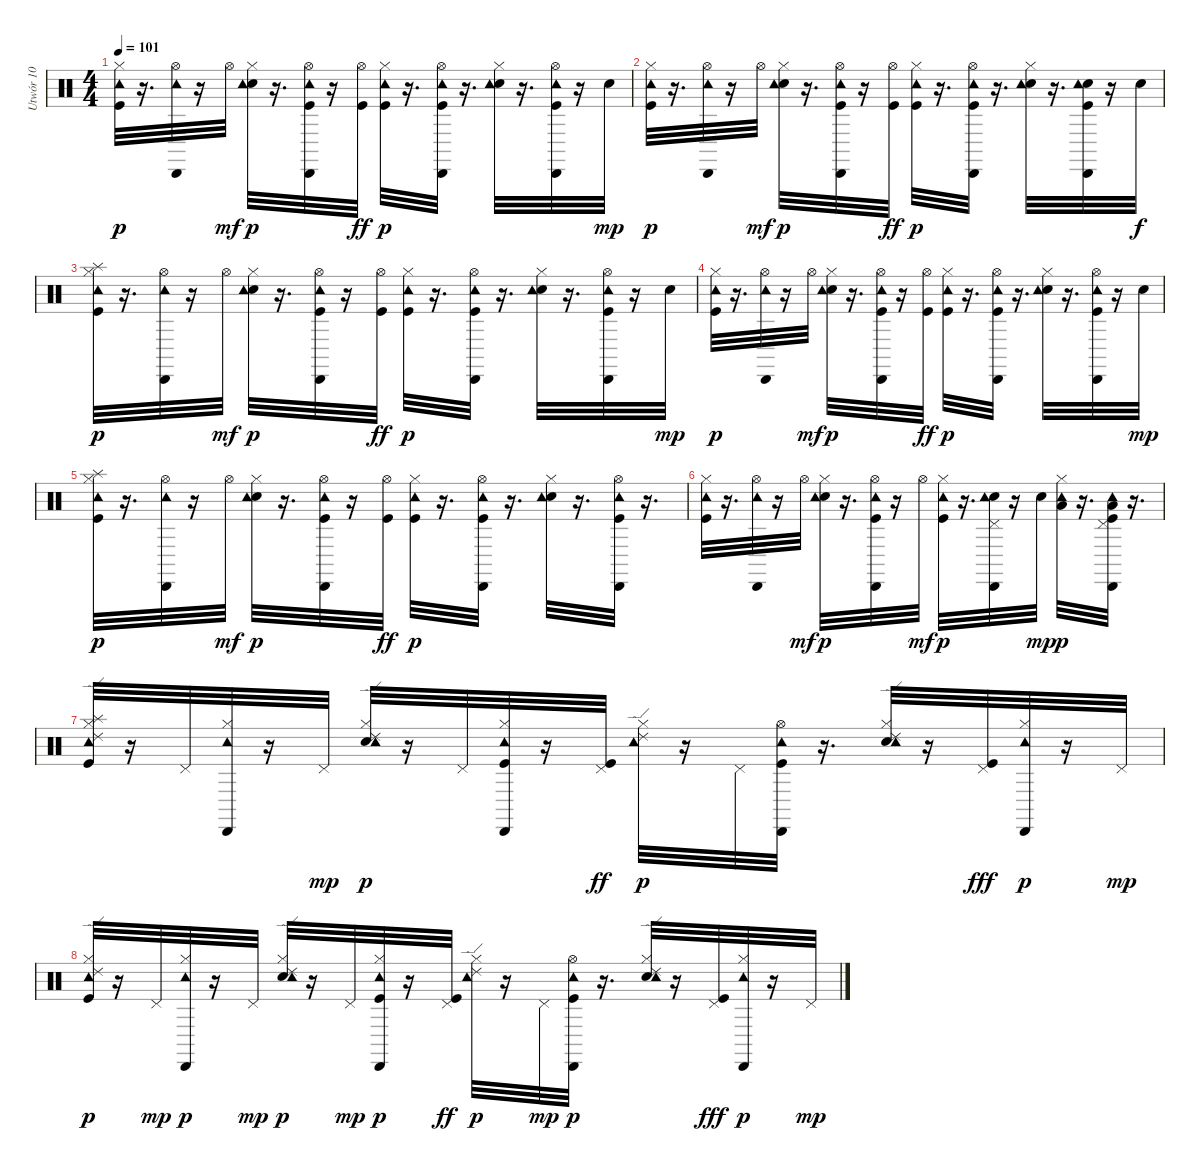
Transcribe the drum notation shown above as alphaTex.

\track ("Utwór 10" "Utwór 10") {instrument percussion}
\staff {score}
\articulation defaults
\ts (4 4)
\tempo 101
\clef neutral
\ks c
("Hi-Hat (closed)" "Kick (hit)" "Tambourine (hit)").32{dy p} r.16{d} ("Cabasa (hit)" "Hi-Hat (open)" "Tambourine (hit)").32 r.16 "Hi-Hat (open)".32{dy mf} ("Electric Snare (hit)" "Hi-Hat (closed)" "Tambourine (hit)").32{dy p} r.16{d} ("Cabasa (hit)" "Hi-Hat (open)" "Kick (hit)" "Tambourine (hit)").32 r.16 ("Hi-Hat (open)" "Kick (hit)").32{dy ff} ("Hi-Hat (closed)" "Kick (hit)" "Tambourine (hit)").32{dy p} r.16{d} ("Cabasa (hit)" "Hi-Hat (open)" "Kick (hit)" "Tambourine (hit)").32 r.16{d} ("Electric Snare (hit)" "Hi-Hat (closed)" "Tambourine (hit)").32 r.16{d} ("Cabasa (hit)" "Hi-Hat (open)" "Kick (hit)" "Tambourine (hit)").32 r.16 "Electric Snare (hit)".32{dy mp} |
("Hi-Hat (closed)" "Kick (hit)" "Tambourine (hit)").32{dy p} r.16{d} ("Cabasa (hit)" "Hi-Hat (open)" "Tambourine (hit)").32 r.16 "Hi-Hat (open)".32{dy mf} ("Electric Snare (hit)" "Hi-Hat (closed)" "Tambourine (hit)").32{dy p} r.16{d} ("Cabasa (hit)" "Hi-Hat (open)" "Kick (hit)" "Tambourine (hit)").32 r.16 ("Hi-Hat (open)" "Kick (hit)").32{dy ff} ("Hi-Hat (closed)" "Kick (hit)" "Tambourine (hit)").32{dy p} r.16{d} ("Cabasa (hit)" "Hi-Hat (open)" "Kick (hit)" "Tambourine (hit)").32 r.16{d} ("Electric Snare (hit)" "Hi-Hat (closed)" "Tambourine (hit)").32 r.16{d} ("Cabasa (hit)" "Electric Snare (hit)" "Kick (hit)" "Tambourine (hit)").32 r.16 "Electric Snare (hit)".32{dy f} |
("Splash (hit)" "Hi-Hat (closed)" "Kick (hit)" "Tambourine (hit)").32{dy p} r.16{d} ("Cabasa (hit)" "Hi-Hat (open)" "Tambourine (hit)").32 r.16 "Hi-Hat (open)".32{dy mf} ("Electric Snare (hit)" "Hi-Hat (closed)" "Tambourine (hit)").32{dy p} r.16{d} ("Cabasa (hit)" "Hi-Hat (open)" "Kick (hit)" "Tambourine (hit)").32 r.16 ("Hi-Hat (open)" "Kick (hit)").32{dy ff} ("Hi-Hat (closed)" "Kick (hit)" "Tambourine (hit)").32{dy p} r.16{d} ("Cabasa (hit)" "Hi-Hat (open)" "Kick (hit)" "Tambourine (hit)").32 r.16{d} ("Electric Snare (hit)" "Hi-Hat (closed)" "Tambourine (hit)").32 r.16{d} ("Cabasa (hit)" "Hi-Hat (open)" "Kick (hit)" "Tambourine (hit)").32 r.16 "Electric Snare (hit)".32{dy mp} |
("Hi-Hat (closed)" "Kick (hit)" "Tambourine (hit)").32{dy p} r.16{d} ("Cabasa (hit)" "Hi-Hat (open)" "Tambourine (hit)").32 r.16 "Hi-Hat (open)".32{dy mf} ("Electric Snare (hit)" "Hi-Hat (closed)" "Tambourine (hit)").32{dy p} r.16{d} ("Cabasa (hit)" "Hi-Hat (open)" "Kick (hit)" "Tambourine (hit)").32 r.16 ("Hi-Hat (open)" "Kick (hit)").32{dy ff} ("Hi-Hat (closed)" "Kick (hit)" "Tambourine (hit)").32{dy p} r.16{d} ("Cabasa (hit)" "Hi-Hat (open)" "Kick (hit)" "Tambourine (hit)").32 r.16{d} ("Electric Snare (hit)" "Hi-Hat (closed)" "Tambourine (hit)").32 r.16{d} ("Cabasa (hit)" "Hi-Hat (open)" "Kick (hit)" "Tambourine (hit)").32 r.16 "Electric Snare (hit)".32{dy mp} |
("Splash (hit)" "Hi-Hat (closed)" "Kick (hit)" "Tambourine (hit)").32{dy p} r.16{d} ("Cabasa (hit)" "Hi-Hat (open)" "Tambourine (hit)").32 r.16 "Hi-Hat (open)".32{dy mf} ("Electric Snare (hit)" "Hi-Hat (closed)" "Tambourine (hit)").32{dy p} r.16{d} ("Cabasa (hit)" "Hi-Hat (open)" "Kick (hit)" "Tambourine (hit)").32 r.16 ("Hi-Hat (open)" "Kick (hit)").32{dy ff} ("Hi-Hat (closed)" "Kick (hit)" "Tambourine (hit)").32{dy p} r.16{d} ("Cabasa (hit)" "Hi-Hat (open)" "Kick (hit)" "Tambourine (hit)").32 r.16{d} ("Electric Snare (hit)" "Hi-Hat (closed)" "Tambourine (hit)").32 r.16{d} ("Cabasa (hit)" "Hi-Hat (open)" "Kick (hit)" "Tambourine (hit)").32 r.16{d} |
("Hi-Hat (closed)" "Kick (hit)" "Tambourine (hit)").32 r.16{d} ("Cabasa (hit)" "Hi-Hat (open)" "Tambourine (hit)").32 r.16 "Hi-Hat (open)".32{dy mf} ("Electric Snare (hit)" "Hi-Hat (closed)" "Tambourine (hit)").32{dy p} r.16{d} ("Cabasa (hit)" "Hi-Hat (open)" "Kick (hit)" "Tambourine (hit)").32 r.16 "Hi-Hat (open)".32{dy mf} ("Hi-Hat (closed)" "Kick (hit)" "Tambourine (hit)").32{dy p} r.16{d} ("Cabasa (hit)" "Electric Snare (hit)" "Pedal Hi-Hat (hit)" "Tambourine (hit)").32 r.16 "Electric Snare (hit)".32{dy mp} ("Low Tom (hit)" "Hi-Hat (closed)" "Tambourine (hit)").32{dy p} r.16{d} ("Cabasa (hit)" "Low Floor Tom (hit)" "Pedal Hi-Hat (hit)" "Kick (hit)" "Tambourine (hit)").32 r.16{d} |
("Ride (edge) 2" "Splash (hit)" "Hi-Hat (closed)" "Kick (hit)" "Tambourine (hit)").32 r.16 "Pedal Hi-Hat (hit)".32 ("Cabasa (hit)" "Hi-Hat (closed)" "Tambourine (hit)").32 r.16 "Pedal Hi-Hat (hit)".32{dy mp} ("Ride (edge) 2" "Electric Snare (hit)" "Hi-Hat (closed)" "Tambourine (hit)").32{dy p} r.16 "Pedal Hi-Hat (hit)".32 ("Cabasa (hit)" "Hi-Hat (closed)" "Kick (hit)" "Tambourine (hit)").32 r.16 ("Pedal Hi-Hat (hit)" "Kick (hit)").32{dy ff} ("Ride (edge) 2" "Hi-Hat (closed)" "Tambourine (hit)").32{dy p} r.16 "Pedal Hi-Hat (hit)".32 ("Cabasa (hit)" "Hi-Hat (open)" "Kick (hit)" "Tambourine (hit)").32 r.16{d} ("Ride (edge) 2" "Electric Snare (hit)" "Hi-Hat (closed)" "Tambourine (hit)").32 r.16 ("Pedal Hi-Hat (hit)" "Kick (hit)").32{dy fff} ("Cabasa (hit)" "Hi-Hat (closed)" "Tambourine (hit)").32{dy p} r.16 "Pedal Hi-Hat (hit)".32{dy mp} |
("Ride (edge) 2" "Hi-Hat (closed)" "Kick (hit)" "Tambourine (hit)").32{dy p} r.16 "Pedal Hi-Hat (hit)".32{dy mp} ("Cabasa (hit)" "Hi-Hat (closed)" "Tambourine (hit)").32{dy p} r.16 "Pedal Hi-Hat (hit)".32{dy mp} ("Ride (edge) 2" "Electric Snare (hit)" "Hi-Hat (closed)" "Tambourine (hit)").32{dy p} r.16 "Pedal Hi-Hat (hit)".32{dy mp} ("Cabasa (hit)" "Hi-Hat (closed)" "Kick (hit)" "Tambourine (hit)").32{dy p} r.16 ("Pedal Hi-Hat (hit)" "Kick (hit)").32{dy ff} ("Ride (edge) 2" "Hi-Hat (closed)" "Tambourine (hit)").32{dy p} r.16 "Pedal Hi-Hat (hit)".32{dy mp} ("Cabasa (hit)" "Hi-Hat (open)" "Kick (hit)" "Tambourine (hit)").32{dy p} r.16{d} ("Ride (edge) 2" "Electric Snare (hit)" "Hi-Hat (closed)" "Tambourine (hit)").32 r.16 ("Pedal Hi-Hat (hit)" "Kick (hit)").32{dy fff} ("Cabasa (hit)" "Hi-Hat (closed)" "Tambourine (hit)").32{dy p} r.16 "Pedal Hi-Hat (hit)".32{dy mp}
